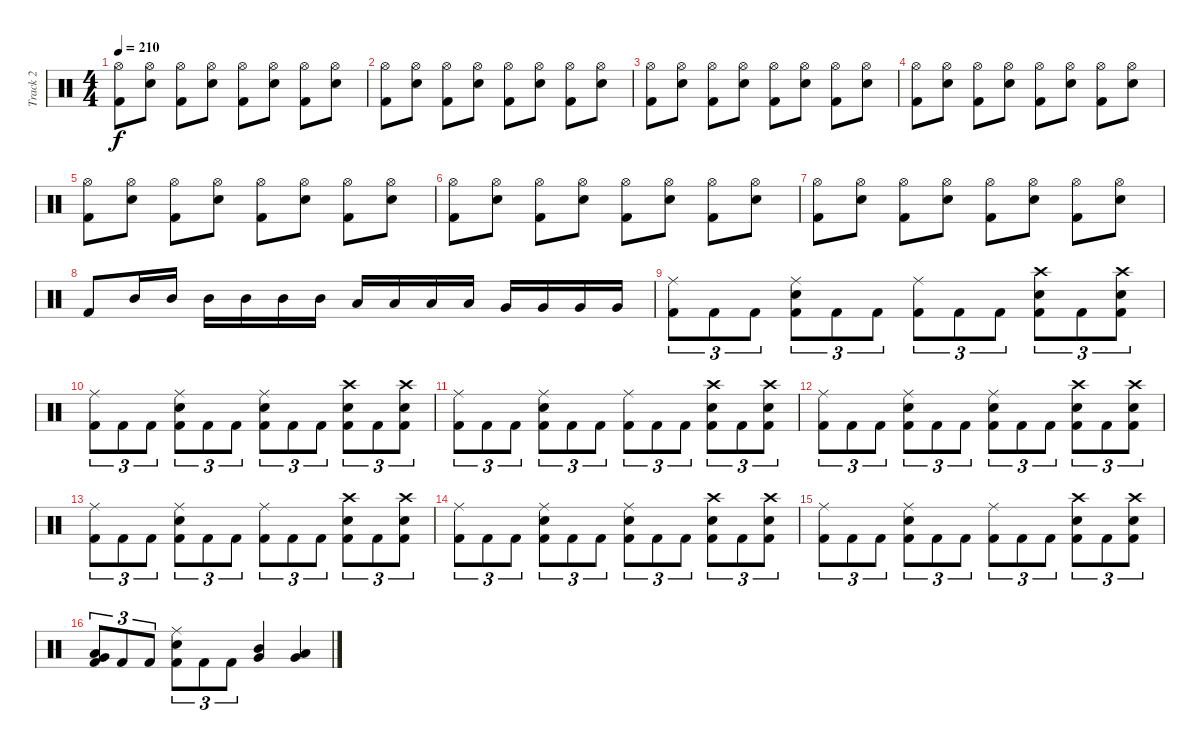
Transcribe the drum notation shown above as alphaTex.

\track ("Track 2" "Track 2") {instrument percussion}
\staff {score}
\articulation defaults
\ts (4 4)
\tempo 210
\clef neutral
\ks c
("Hi-Hat (open)" "Kick (hit) 2").8{dy f} ("Hi-Hat (open)" "Snare (hit) 2").8 ("Hi-Hat (open)" "Kick (hit) 2").8 ("Hi-Hat (open)" "Snare (hit) 2").8 ("Hi-Hat (open)" "Kick (hit) 2").8 ("Hi-Hat (open)" "Snare (hit) 2").8 ("Hi-Hat (open)" "Kick (hit) 2").8 ("Hi-Hat (open)" "Snare (hit) 2").8 |
("Hi-Hat (open)" "Kick (hit) 2").8 ("Hi-Hat (open)" "Snare (hit) 2").8 ("Hi-Hat (open)" "Kick (hit) 2").8 ("Hi-Hat (open)" "Snare (hit) 2").8 ("Hi-Hat (open)" "Kick (hit) 2").8 ("Hi-Hat (open)" "Snare (hit) 2").8 ("Hi-Hat (open)" "Kick (hit) 2").8 ("Hi-Hat (open)" "Snare (hit) 2").8 |
("Hi-Hat (open)" "Kick (hit) 2").8 ("Hi-Hat (open)" "Snare (hit) 2").8 ("Hi-Hat (open)" "Kick (hit) 2").8 ("Hi-Hat (open)" "Snare (hit) 2").8 ("Hi-Hat (open)" "Kick (hit) 2").8 ("Hi-Hat (open)" "Snare (hit) 2").8 ("Hi-Hat (open)" "Kick (hit) 2").8 ("Hi-Hat (open)" "Snare (hit) 2").8 |
("Hi-Hat (open)" "Kick (hit) 2").8 ("Hi-Hat (open)" "Snare (hit) 2").8 ("Hi-Hat (open)" "Kick (hit) 2").8 ("Hi-Hat (open)" "Snare (hit) 2").8 ("Hi-Hat (open)" "Kick (hit) 2").8 ("Hi-Hat (open)" "Snare (hit) 2").8 ("Hi-Hat (open)" "Kick (hit) 2").8 ("Hi-Hat (open)" "Snare (hit) 2").8 |
("Hi-Hat (open)" "Kick (hit) 2").8 ("Hi-Hat (open)" "Snare (hit) 2").8 ("Hi-Hat (open)" "Kick (hit) 2").8 ("Hi-Hat (open)" "Snare (hit) 2").8 ("Hi-Hat (open)" "Kick (hit) 2").8 ("Hi-Hat (open)" "Snare (hit) 2").8 ("Hi-Hat (open)" "Kick (hit) 2").8 ("Hi-Hat (open)" "Snare (hit) 2").8 |
("Hi-Hat (open)" "Kick (hit) 2").8 ("Hi-Hat (open)" "Snare (hit) 2").8 ("Hi-Hat (open)" "Kick (hit) 2").8 ("Hi-Hat (open)" "Snare (hit) 2").8 ("Hi-Hat (open)" "Kick (hit) 2").8 ("Hi-Hat (open)" "Snare (hit) 2").8 ("Hi-Hat (open)" "Kick (hit) 2").8 ("Hi-Hat (open)" "Snare (hit) 2").8 |
("Hi-Hat (open)" "Kick (hit) 2").8 ("Hi-Hat (open)" "Snare (hit) 2").8 ("Hi-Hat (open)" "Kick (hit) 2").8 ("Hi-Hat (open)" "Snare (hit) 2").8 ("Hi-Hat (open)" "Kick (hit) 2").8 ("Hi-Hat (open)" "Snare (hit) 2").8 ("Hi-Hat (open)" "Kick (hit) 2").8 ("Hi-Hat (open)" "Snare (hit) 2").8 |
"Kick (hit) 2".8 "Mid Tom (hit)".16 "Mid Tom (hit)".16 "Mid Tom (hit)".16 "Mid Tom (hit)".16 "Mid Tom (hit)".16 "Mid Tom (hit)".16 "Low Tom (hit)".16 "Low Tom (hit)".16 "Low Tom (hit)".16 "Low Tom (hit)".16 "Very Low Tom (hit)".16 "Very Low Tom (hit)".16 "Very Low Tom (hit)".16 "Very Low Tom (hit)".16 |
("Ride (middle)" "Kick (hit) 2").8{tu (3 2)} "Kick (hit) 2".8{tu (3 2)} "Kick (hit) 2".8{tu (3 2)} ("Ride (middle)" "Snare (hit) 2" "Kick (hit) 2").8{tu (3 2)} "Kick (hit) 2".8{tu (3 2)} "Kick (hit) 2".8{tu (3 2)} ("Ride (middle)" "Kick (hit) 2").8{tu (3 2)} "Kick (hit) 2".8{tu (3 2)} "Kick (hit) 2".8{tu (3 2)} ("Crash high (hit)" "Snare (hit) 2" "Kick (hit) 2").8{tu (3 2)} "Kick (hit) 2".8{tu (3 2)} ("Crash high (hit)" "Snare (hit) 2" "Kick (hit) 2").8{tu (3 2)} |
("Ride (middle)" "Kick (hit) 2").8{tu (3 2)} "Kick (hit) 2".8{tu (3 2)} "Kick (hit) 2".8{tu (3 2)} ("Ride (middle)" "Snare (hit) 2" "Kick (hit) 2").8{tu (3 2)} "Kick (hit) 2".8{tu (3 2)} "Kick (hit) 2".8{tu (3 2)} ("Ride (middle)" "Snare (hit) 2" "Kick (hit) 2").8{tu (3 2)} "Kick (hit) 2".8{tu (3 2)} "Kick (hit) 2".8{tu (3 2)} ("Crash high (hit)" "Snare (hit) 2" "Kick (hit) 2").8{tu (3 2)} "Kick (hit) 2".8{tu (3 2)} ("Crash high (hit)" "Snare (hit) 2" "Kick (hit) 2").8{tu (3 2)} |
("Ride (middle)" "Kick (hit) 2").8{tu (3 2)} "Kick (hit) 2".8{tu (3 2)} "Kick (hit) 2".8{tu (3 2)} ("Ride (middle)" "Snare (hit) 2" "Kick (hit) 2").8{tu (3 2)} "Kick (hit) 2".8{tu (3 2)} "Kick (hit) 2".8{tu (3 2)} ("Ride (middle)" "Kick (hit) 2").8{tu (3 2)} "Kick (hit) 2".8{tu (3 2)} "Kick (hit) 2".8{tu (3 2)} ("Crash high (hit)" "Snare (hit) 2" "Kick (hit) 2").8{tu (3 2)} "Kick (hit) 2".8{tu (3 2)} ("Crash high (hit)" "Snare (hit) 2" "Kick (hit) 2").8{tu (3 2)} |
("Ride (middle)" "Kick (hit) 2").8{tu (3 2)} "Kick (hit) 2".8{tu (3 2)} "Kick (hit) 2".8{tu (3 2)} ("Ride (middle)" "Snare (hit) 2" "Kick (hit) 2").8{tu (3 2)} "Kick (hit) 2".8{tu (3 2)} "Kick (hit) 2".8{tu (3 2)} ("Ride (middle)" "Snare (hit) 2" "Kick (hit) 2").8{tu (3 2)} "Kick (hit) 2".8{tu (3 2)} "Kick (hit) 2".8{tu (3 2)} ("Crash high (hit)" "Snare (hit) 2" "Kick (hit) 2").8{tu (3 2)} "Kick (hit) 2".8{tu (3 2)} ("Crash high (hit)" "Snare (hit) 2" "Kick (hit) 2").8{tu (3 2)} |
("Ride (middle)" "Kick (hit) 2").8{tu (3 2)} "Kick (hit) 2".8{tu (3 2)} "Kick (hit) 2".8{tu (3 2)} ("Ride (middle)" "Snare (hit) 2" "Kick (hit) 2").8{tu (3 2)} "Kick (hit) 2".8{tu (3 2)} "Kick (hit) 2".8{tu (3 2)} ("Ride (middle)" "Kick (hit) 2").8{tu (3 2)} "Kick (hit) 2".8{tu (3 2)} "Kick (hit) 2".8{tu (3 2)} ("Crash high (hit)" "Snare (hit) 2" "Kick (hit) 2").8{tu (3 2)} "Kick (hit) 2".8{tu (3 2)} ("Crash high (hit)" "Snare (hit) 2" "Kick (hit) 2").8{tu (3 2)} |
("Ride (middle)" "Kick (hit) 2").8{tu (3 2)} "Kick (hit) 2".8{tu (3 2)} "Kick (hit) 2".8{tu (3 2)} ("Ride (middle)" "Snare (hit) 2" "Kick (hit) 2").8{tu (3 2)} "Kick (hit) 2".8{tu (3 2)} "Kick (hit) 2".8{tu (3 2)} ("Ride (middle)" "Snare (hit) 2" "Kick (hit) 2").8{tu (3 2)} "Kick (hit) 2".8{tu (3 2)} "Kick (hit) 2".8{tu (3 2)} ("Crash high (hit)" "Snare (hit) 2" "Kick (hit) 2").8{tu (3 2)} "Kick (hit) 2".8{tu (3 2)} ("Crash high (hit)" "Snare (hit) 2" "Kick (hit) 2").8{tu (3 2)} |
("Ride (middle)" "Kick (hit) 2").8{tu (3 2)} "Kick (hit) 2".8{tu (3 2)} "Kick (hit) 2".8{tu (3 2)} ("Ride (middle)" "Snare (hit) 2" "Kick (hit) 2").8{tu (3 2)} "Kick (hit) 2".8{tu (3 2)} "Kick (hit) 2".8{tu (3 2)} ("Ride (middle)" "Kick (hit) 2").8{tu (3 2)} "Kick (hit) 2".8{tu (3 2)} "Kick (hit) 2".8{tu (3 2)} ("Crash high (hit)" "Snare (hit) 2" "Kick (hit) 2").8{tu (3 2)} "Kick (hit) 2".8{tu (3 2)} ("Crash high (hit)" "Snare (hit) 2" "Kick (hit) 2").8{tu (3 2)} |
("Low Tom (hit)" "Very Low Tom (hit)" "Kick (hit) 2").8{tu (3 2)} "Kick (hit) 2".8{tu (3 2)} "Kick (hit) 2".8{tu (3 2)} ("Ride (middle)" "Snare (hit) 2" "Kick (hit) 2").8{tu (3 2)} "Kick (hit) 2".8{tu (3 2)} "Kick (hit) 2".8{tu (3 2)} ("Mid Tom (hit)" "Very Low Tom (hit)").4 ("Low Tom (hit)" "Very Low Tom (hit)").4
